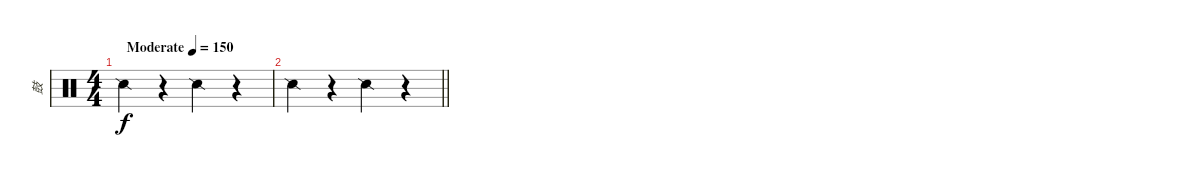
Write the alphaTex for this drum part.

\track ("鼓" "鼓") {instrument percussion}
\staff {score}
\articulation defaults
\ts (4 4)
\tempo (150 "Moderate")
\clef neutral
\ks c "Snare (side stick) 2".4{dy f}
r.4 "Snare (side stick) 2".4 r.4 |
\barLineRight lightlight "Snare (side stick) 2".4
r.4 "Snare (side stick) 2".4 r.4
